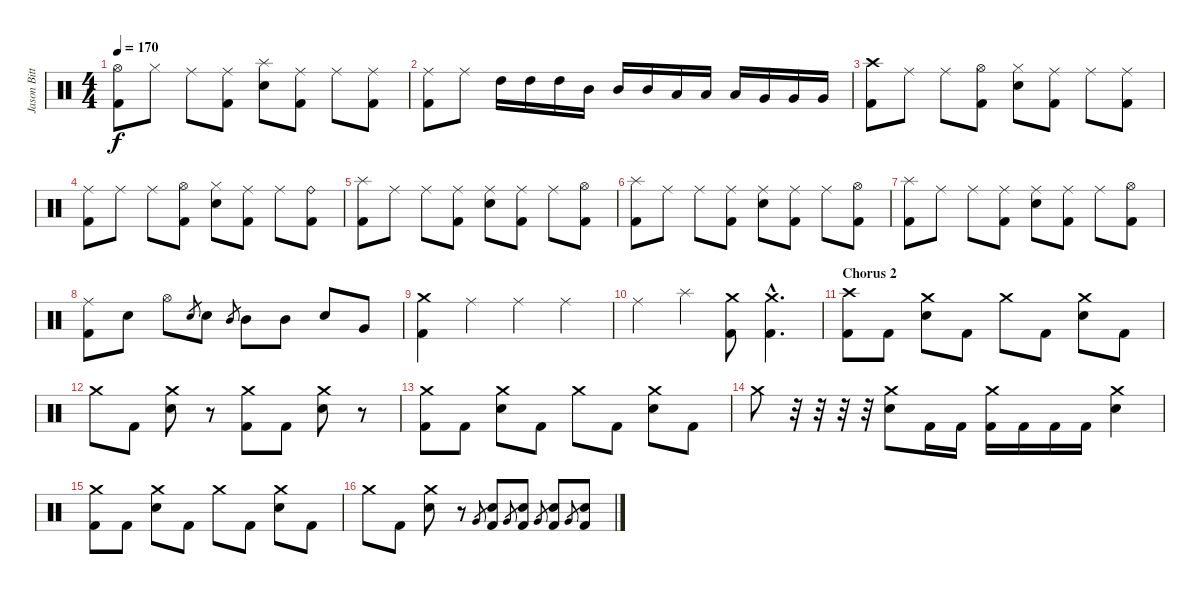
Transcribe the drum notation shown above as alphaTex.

\track ("Jason Bittner" "Jason Bitt") {instrument percussion}
\staff {score}
\articulation defaults
\ts (4 4)
\tempo 170
\clef neutral
\ks c
("Hi-Hat (open)" "Kick (hit) 2").8{dy f} "Hi-Hat (closed)".8 "Ride (middle)".8 ("Ride (middle)" "Kick (hit) 2").8 ("Splash (hit)" "Electric Snare (hit)").8 ("Ride (middle)" "Kick (hit) 2").8 "Ride (middle)".8 ("Ride (middle)" "Kick (hit) 2").8 |
("Ride (middle)" "Kick (hit) 2").8 "Ride (middle)".8 "High Tom (hit)".16 "High Tom (hit)".16 "High Tom (hit)".16 "Mid Tom (hit)".16 "Mid Tom (hit)".16 "Mid Tom (hit)".16 "Low Tom (hit)".16 "Low Tom (hit)".16 "Low Tom (hit)".16 "Very Low Tom (hit)".16 "Very Low Tom (hit)".16 "Very Low Tom (hit)".16 |
("Crash high (hit)" "Kick (hit) 2").8 "Ride (middle)".8 "Ride (middle)".8 ("Hi-Hat (open)" "Kick (hit) 2").8 ("Hi-Hat (closed)" "Electric Snare (hit)").8 ("Ride (middle)" "Kick (hit) 2").8 "Ride (middle)".8 ("Ride (middle)" "Kick (hit) 2").8 |
("Ride (middle)" "Kick (hit) 2").8 "Ride (middle)".8 "Ride (middle)".8 ("Hi-Hat (open)" "Kick (hit) 2").8 ("Hi-Hat (closed)" "Electric Snare (hit)").8 ("Ride (middle)" "Kick (hit) 2").8 "Ride (middle)".8 ("Ride (bell)" "Kick (hit) 2").8 |
("Splash (hit)" "Kick (hit) 2").8 "Ride (middle)".8 "Ride (middle)".8 ("Ride (middle)" "Kick (hit) 2").8 ("Ride (middle)" "Electric Snare (hit)").8 ("Ride (middle)" "Kick (hit) 2").8 "Ride (middle)".8 ("Hi-Hat (open)" "Kick (hit) 2").8 |
("Splash (hit)" "Kick (hit) 2").8 "Ride (middle)".8 "Ride (middle)".8 ("Ride (middle)" "Kick (hit) 2").8 ("Ride (middle)" "Electric Snare (hit)").8 ("Ride (middle)" "Kick (hit) 2").8 "Ride (middle)".8 ("Hi-Hat (open)" "Kick (hit) 2").8 |
("Splash (hit)" "Kick (hit) 2").8 "Ride (middle)".8 "Ride (middle)".8 ("Ride (middle)" "Kick (hit) 2").8 ("Ride (middle)" "Electric Snare (hit)").8 ("Ride (middle)" "Kick (hit) 2").8 "Ride (middle)".8 ("Hi-Hat (open)" "Kick (hit) 2").8 |
("Ride (middle)" "Kick (hit) 2").8 "Snare (hit)".8 "Hi-Hat (open)".8 "Electric Snare (hit)".8{gr} "Electric Snare (hit)".8 "Mid Tom (hit)".8{gr} "Mid Tom (hit)".8 "Mid Tom (hit)".8 "Electric Snare (hit)".8 "Very Low Tom (hit)".8 |
("Crash medium (hit)" "Kick (hit) 2").4 "Ride (middle)".4 "Ride (middle)".4 "Ride (middle)".4 |
"Ride (middle)".4 "Splash (hit)".4 ("Crash medium (hit)" "Kick (hit) 2").8 ("Crash medium (hit)"{hac} "Kick (hit) 2"{hac}).4{d} |
\section ("" "Chorus 2")
("Crash high (hit)" "Kick (hit) 2").8 "Kick (hit) 2".8 ("Crash medium (hit)" "Electric Snare (hit)").8 "Kick (hit) 2".8 "Crash medium (hit)".8 "Kick (hit) 2".8 ("Crash medium (hit)" "Electric Snare (hit)").8 "Kick (hit) 2".8 |
"Crash medium (hit)".8 "Kick (hit) 2".8 ("Crash medium (hit)" "Electric Snare (hit)").8 r.8 ("Crash medium (hit)" "Kick (hit) 2").8 "Kick (hit) 2".8 ("Crash medium (hit)" "Electric Snare (hit)").8 r.8 |
("Crash medium (hit)" "Kick (hit) 2").8 "Kick (hit) 2".8 ("Crash medium (hit)" "Electric Snare (hit)").8 "Kick (hit) 2".8 "Crash medium (hit)".8 "Kick (hit) 2".8 ("Crash medium (hit)" "Electric Snare (hit)").8 "Kick (hit) 2".8 |
"Crash medium (hit)".8 r.32 r.32 r.32 r.32 ("Crash medium (hit)" "Electric Snare (hit)").8 "Kick (hit) 2".16 "Kick (hit) 2".16 ("Crash medium (hit)" "Kick (hit) 2").16 "Kick (hit) 2".16 "Kick (hit) 2".16 "Kick (hit) 2".16 ("Crash medium (hit)" "Electric Snare (hit)").4 |
("Crash medium (hit)" "Kick (hit) 2").8 "Kick (hit) 2".8 ("Crash medium (hit)" "Electric Snare (hit)").8 "Kick (hit) 2".8 "Crash medium (hit)".8 "Kick (hit) 2".8 ("Crash medium (hit)" "Electric Snare (hit)").8 "Kick (hit) 2".8 |
"Crash medium (hit)".8 "Kick (hit) 2".8 ("Crash medium (hit)" "Electric Snare (hit)").8 r.8 "Very Low Tom (hit)".8{gr} ("Kick (hit) 2" "Electric Snare (hit)").8 "Very Low Tom (hit)".8{gr} ("Kick (hit) 2" "Electric Snare (hit)").8 "Very Low Tom (hit)".8{gr} ("Kick (hit) 2" "Electric Snare (hit)").8 "Very Low Tom (hit)".8{gr} ("Kick (hit) 2" "Electric Snare (hit)").8
